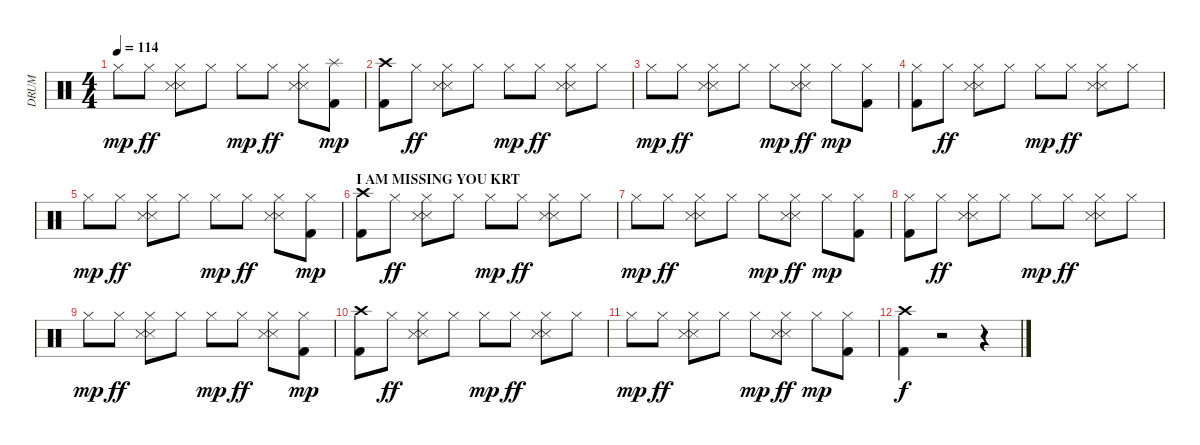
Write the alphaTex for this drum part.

\track ("DRUM" "DRUM") {instrument percussion}
\staff {score}
\articulation defaults
\ts (4 4)
\tempo 114
\clef neutral
\ks c "Hi-Hat (closed)".8{dy mp} "Hi-Hat (closed)".8{dy ff}
("Hi-Hat (closed)" "Snare (side stick) 3" "Snare (side stick) 3").8 "Hi-Hat (closed)".8 "Hi-Hat (closed)".8{dy mp} "Hi-Hat (closed)".8{dy ff} ("Hi-Hat (closed)" "Snare (side stick) 3" "Snare (side stick) 3").8 ("Splash (hit)" "Kick (hit) 2").8{dy mp} |
("Crash high (hit)" "Kick (hit) 2").8 "Hi-Hat (closed)".8{dy ff} ("Hi-Hat (closed)" "Snare (side stick) 3" "Snare (side stick) 3").8 "Hi-Hat (closed)".8 "Hi-Hat (closed)".8{dy mp} "Hi-Hat (closed)".8{dy ff} ("Hi-Hat (closed)" "Snare (side stick) 3" "Snare (side stick) 3").8 "Hi-Hat (closed)".8 |
"Hi-Hat (closed)".8{dy mp} "Hi-Hat (closed)".8{dy ff} ("Hi-Hat (closed)" "Snare (side stick) 3" "Snare (side stick) 3").8 "Hi-Hat (closed)".8 "Hi-Hat (closed)".8{dy mp} ("Hi-Hat (closed)" "Snare (side stick) 3" "Snare (side stick) 3").8{dy ff} "Hi-Hat (closed)".8{dy mp} ("Hi-Hat (closed)" "Kick (hit) 2").8 |
("Hi-Hat (closed)" "Kick (hit) 2").8 "Hi-Hat (closed)".8{dy ff} ("Hi-Hat (closed)" "Snare (side stick) 3" "Snare (side stick) 3").8 "Hi-Hat (closed)".8 "Hi-Hat (closed)".8{dy mp} "Hi-Hat (closed)".8{dy ff} ("Hi-Hat (closed)" "Snare (side stick) 3" "Snare (side stick) 3").8 "Hi-Hat (closed)".8 |
"Hi-Hat (closed)".8{dy mp} "Hi-Hat (closed)".8{dy ff} ("Hi-Hat (closed)" "Snare (side stick) 3" "Snare (side stick) 3").8 "Hi-Hat (closed)".8 "Hi-Hat (closed)".8{dy mp} "Hi-Hat (closed)".8{dy ff} ("Hi-Hat (closed)" "Snare (side stick) 3" "Snare (side stick) 3").8 ("Hi-Hat (closed)" "Kick (hit) 2").8{dy mp} |
\section ("" "I AM MISSING YOU KRT")
("Crash high (hit)" "Kick (hit) 2").8 "Hi-Hat (closed)".8{dy ff} ("Hi-Hat (closed)" "Snare (side stick) 3" "Snare (side stick) 3").8 "Hi-Hat (closed)".8 "Hi-Hat (closed)".8{dy mp} "Hi-Hat (closed)".8{dy ff} ("Hi-Hat (closed)" "Snare (side stick) 3" "Snare (side stick) 3").8 "Hi-Hat (closed)".8 |
"Hi-Hat (closed)".8{dy mp} "Hi-Hat (closed)".8{dy ff} ("Hi-Hat (closed)" "Snare (side stick) 3" "Snare (side stick) 3").8 "Hi-Hat (closed)".8 "Hi-Hat (closed)".8{dy mp} ("Hi-Hat (closed)" "Snare (side stick) 3" "Snare (side stick) 3").8{dy ff} "Hi-Hat (closed)".8{dy mp} ("Hi-Hat (closed)" "Kick (hit) 2").8 |
("Hi-Hat (closed)" "Kick (hit) 2").8 "Hi-Hat (closed)".8{dy ff} ("Hi-Hat (closed)" "Snare (side stick) 3" "Snare (side stick) 3").8 "Hi-Hat (closed)".8 "Hi-Hat (closed)".8{dy mp} "Hi-Hat (closed)".8{dy ff} ("Hi-Hat (closed)" "Snare (side stick) 3" "Snare (side stick) 3").8 "Hi-Hat (closed)".8 |
"Hi-Hat (closed)".8{dy mp} "Hi-Hat (closed)".8{dy ff} ("Hi-Hat (closed)" "Snare (side stick) 3" "Snare (side stick) 3").8 "Hi-Hat (closed)".8 "Hi-Hat (closed)".8{dy mp} "Hi-Hat (closed)".8{dy ff} ("Hi-Hat (closed)" "Snare (side stick) 3" "Snare (side stick) 3").8 ("Hi-Hat (closed)" "Kick (hit) 2").8{dy mp} |
("Crash high (hit)" "Kick (hit) 2").8 "Hi-Hat (closed)".8{dy ff} ("Hi-Hat (closed)" "Snare (side stick) 3" "Snare (side stick) 3").8 "Hi-Hat (closed)".8 "Hi-Hat (closed)".8{dy mp} "Hi-Hat (closed)".8{dy ff} ("Hi-Hat (closed)" "Snare (side stick) 3" "Snare (side stick) 3").8 "Hi-Hat (closed)".8 |
"Hi-Hat (closed)".8{dy mp} "Hi-Hat (closed)".8{dy ff} ("Hi-Hat (closed)" "Snare (side stick) 3" "Snare (side stick) 3").8 "Hi-Hat (closed)".8 "Hi-Hat (closed)".8{dy mp} ("Hi-Hat (closed)" "Snare (side stick) 3" "Snare (side stick) 3").8{dy ff} "Hi-Hat (closed)".8{dy mp} ("Hi-Hat (closed)" "Kick (hit) 2").8 |
("Crash high (hit)" "Kick (hit) 2").4{dy f} r.2 r.4
